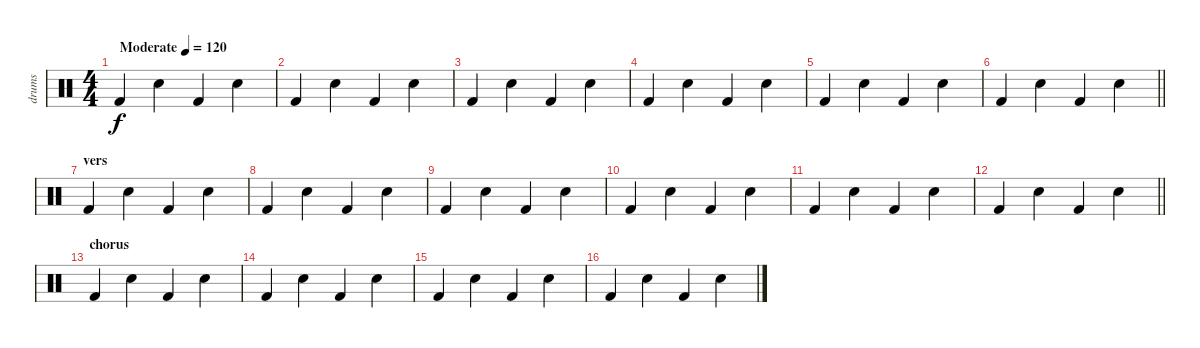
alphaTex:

\track ("drums" "drums") {instrument percussion}
\staff {score}
\articulation defaults
\ts (4 4)
\tempo (120 "Moderate")
\clef neutral
\ks c "Kick (hit) 2".4{dy f} "Snare (hit) 2".4 "Kick (hit) 2".4 "Snare (hit) 2".4
|
"Kick (hit) 2".4 "Snare (hit) 2".4 "Kick (hit) 2".4 "Snare (hit) 2".4 |
"Kick (hit) 2".4 "Snare (hit) 2".4 "Kick (hit) 2".4 "Snare (hit) 2".4 |
"Kick (hit) 2".4 "Snare (hit) 2".4 "Kick (hit) 2".4 "Snare (hit) 2".4 |
"Kick (hit) 2".4 "Snare (hit) 2".4 "Kick (hit) 2".4 "Snare (hit) 2".4 |
\barLineRight lightlight "Kick (hit) 2".4 "Snare (hit) 2".4 "Kick (hit) 2".4 "Snare (hit) 2".4
|
\section ("" "vers")
"Kick (hit) 2".4 "Snare (hit) 2".4 "Kick (hit) 2".4 "Snare (hit) 2".4 |
"Kick (hit) 2".4 "Snare (hit) 2".4 "Kick (hit) 2".4 "Snare (hit) 2".4 |
"Kick (hit) 2".4 "Snare (hit) 2".4 "Kick (hit) 2".4 "Snare (hit) 2".4 |
"Kick (hit) 2".4 "Snare (hit) 2".4 "Kick (hit) 2".4 "Snare (hit) 2".4 |
"Kick (hit) 2".4 "Snare (hit) 2".4 "Kick (hit) 2".4 "Snare (hit) 2".4 |
\barLineRight lightlight "Kick (hit) 2".4 "Snare (hit) 2".4 "Kick (hit) 2".4 "Snare (hit) 2".4
|
\section ("" "chorus")
"Kick (hit) 2".4 "Snare (hit) 2".4 "Kick (hit) 2".4 "Snare (hit) 2".4 |
"Kick (hit) 2".4 "Snare (hit) 2".4 "Kick (hit) 2".4 "Snare (hit) 2".4 |
"Kick (hit) 2".4 "Snare (hit) 2".4 "Kick (hit) 2".4 "Snare (hit) 2".4 |
"Kick (hit) 2".4 "Snare (hit) 2".4 "Kick (hit) 2".4 "Snare (hit) 2".4
